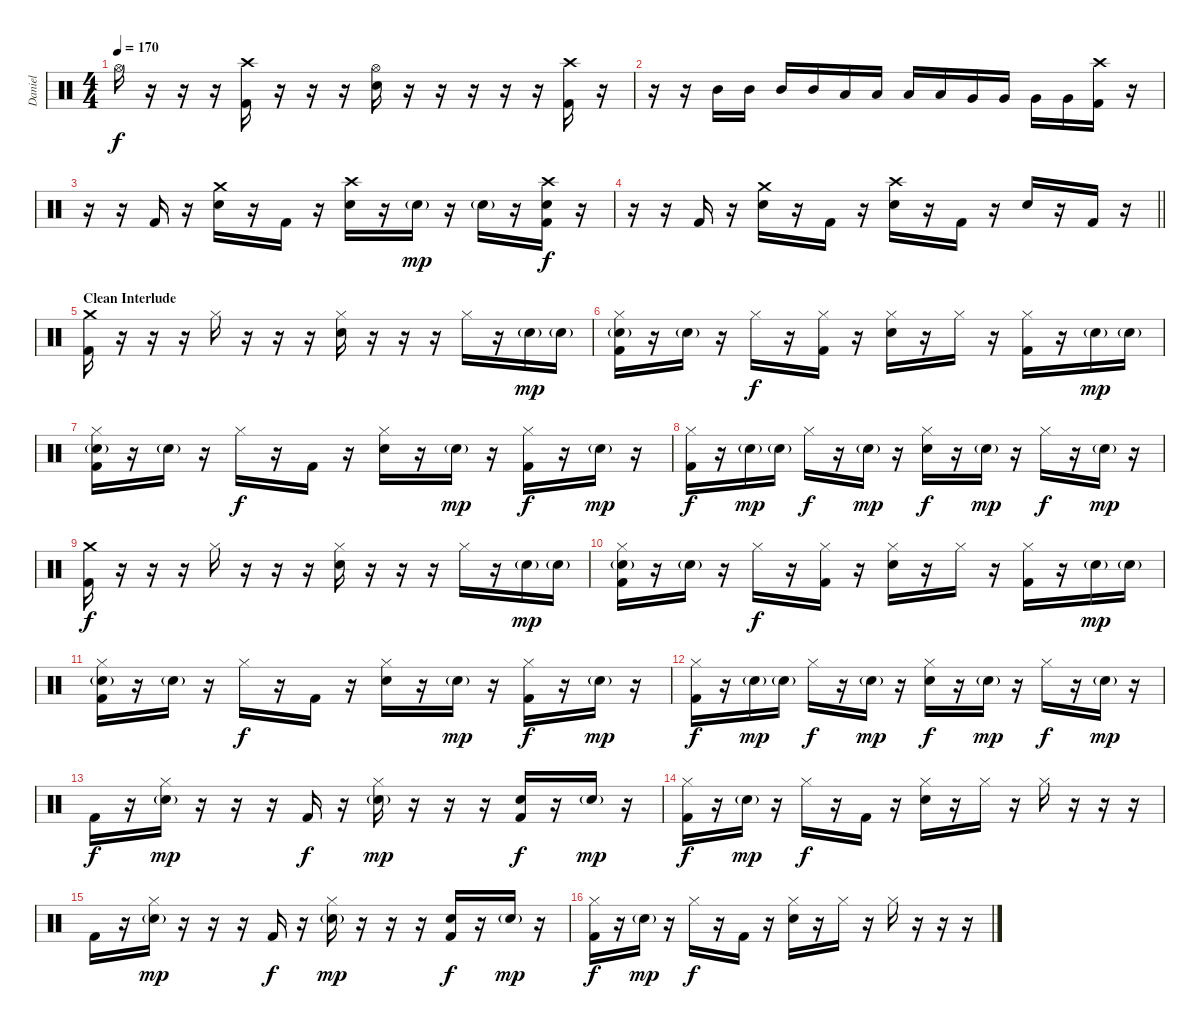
\track ("Daniel" "Daniel") {instrument percussion}
\staff {score}
\articulation defaults
\ts (4 4)
\tempo 170
\clef neutral
\ks c "Hi-Hat (open)".16{dy f}
r.16 r.16 r.16 ("Crash high (hit)" "Kick (hit) 2").16 r.16 r.16 r.16 ("Hi-Hat (open)" "Snare (hit) 2").16 r.16 r.16 r.16 r.16 r.16 ("Crash high (hit)" "Kick (hit) 2").16 r.16 |
r.16 r.16 "Mid Tom (hit)".16 "Mid Tom (hit)".16 "Mid Tom (hit)".16 "Mid Tom (hit)".16 "Low Tom (hit)".16 "Low Tom (hit)".16 "Low Tom (hit)".16 "Low Tom (hit)".16 "Very Low Tom (hit)".16 "Very Low Tom (hit)".16 "Very Low Tom (hit)".16 "Very Low Tom (hit)".16 ("Crash high (hit)" "Kick (hit) 2").16 r.16 |
r.16 r.16 "Kick (hit) 2".16 r.16 ("Crash medium (hit)" "Snare (hit) 2").16 r.16 "Kick (hit) 2".16 r.16 ("Crash high (hit)" "Snare (hit) 2").16 r.16 "Snare (hit) 2"{g}.16{dy mp} r.16 "Snare (hit) 2"{g}.16 r.16 ("Crash high (hit)" "Snare (hit) 2" "Kick (hit) 2").16{dy f} r.16 |
\barLineRight lightlight
r.16 r.16 "Kick (hit) 2".16 r.16 ("Crash medium (hit)" "Snare (hit) 2").16 r.16 "Kick (hit) 2".16 r.16 ("Crash high (hit)" "Snare (hit) 2").16 r.16 "Kick (hit) 2".16 r.16 "Snare (hit) 2".16 r.16 "Kick (hit) 2".16 r.16 |
\section ("" "Clean Interlude")
("Crash medium (hit)" "Kick (hit) 2").16 r.16 r.16 r.16 "Hi-Hat (closed)".16 r.16 r.16 r.16 ("Hi-Hat (closed)" "Snare (hit) 2").16 r.16 r.16 r.16 "Hi-Hat (closed)".16 r.16 "Snare (hit) 2"{g}.16{dy mp} "Snare (hit) 2"{g}.16 |
("Hi-Hat (closed)" "Snare (hit) 2"{g} "Kick (hit) 2").16 r.16 "Snare (hit) 2"{g}.16 r.16 "Hi-Hat (closed)".16{dy f} r.16 ("Hi-Hat (closed)" "Kick (hit) 2").16 r.16 ("Hi-Hat (closed)" "Snare (hit) 2").16 r.16 "Hi-Hat (closed)".16 r.16 ("Hi-Hat (closed)" "Kick (hit) 2").16 r.16 "Snare (hit) 2"{g}.16{dy mp} "Snare (hit) 2"{g}.16 |
("Hi-Hat (closed)" "Snare (hit) 2"{g} "Kick (hit) 2").16 r.16 "Snare (hit) 2"{g}.16 r.16 "Hi-Hat (closed)".16{dy f} r.16 "Kick (hit) 2".16 r.16 ("Hi-Hat (closed)" "Snare (hit) 2").16 r.16 "Snare (hit) 2"{g}.16{dy mp} r.16 ("Hi-Hat (closed)" "Kick (hit) 2").16{dy f} r.16 "Snare (hit) 2"{g}.16{dy mp} r.16 |
("Hi-Hat (closed)" "Kick (hit) 2").16{dy f} r.16 "Snare (hit) 2"{g}.16{dy mp} "Snare (hit) 2"{g}.16 "Hi-Hat (closed)".16{dy f} r.16 "Snare (hit) 2"{g}.16{dy mp} r.16 ("Hi-Hat (closed)" "Snare (hit) 2").16{dy f} r.16 "Snare (hit) 2"{g}.16{dy mp} r.16 "Hi-Hat (closed)".16{dy f} r.16 "Snare (hit) 2"{g}.16{dy mp} r.16 |
("Crash medium (hit)" "Kick (hit) 2").16{dy f} r.16 r.16 r.16 "Hi-Hat (closed)".16 r.16 r.16 r.16 ("Hi-Hat (closed)" "Snare (hit) 2").16 r.16 r.16 r.16 "Hi-Hat (closed)".16 r.16 "Snare (hit) 2"{g}.16{dy mp} "Snare (hit) 2"{g}.16 |
("Hi-Hat (closed)" "Snare (hit) 2"{g} "Kick (hit) 2").16 r.16 "Snare (hit) 2"{g}.16 r.16 "Hi-Hat (closed)".16{dy f} r.16 ("Hi-Hat (closed)" "Kick (hit) 2").16 r.16 ("Hi-Hat (closed)" "Snare (hit) 2").16 r.16 "Hi-Hat (closed)".16 r.16 ("Hi-Hat (closed)" "Kick (hit) 2").16 r.16 "Snare (hit) 2"{g}.16{dy mp} "Snare (hit) 2"{g}.16 |
("Hi-Hat (closed)" "Snare (hit) 2"{g} "Kick (hit) 2").16 r.16 "Snare (hit) 2"{g}.16 r.16 "Hi-Hat (closed)".16{dy f} r.16 "Kick (hit) 2".16 r.16 ("Hi-Hat (closed)" "Snare (hit) 2").16 r.16 "Snare (hit) 2"{g}.16{dy mp} r.16 ("Hi-Hat (closed)" "Kick (hit) 2").16{dy f} r.16 "Snare (hit) 2"{g}.16{dy mp} r.16 |
("Hi-Hat (closed)" "Kick (hit) 2").16{dy f} r.16 "Snare (hit) 2"{g}.16{dy mp} "Snare (hit) 2"{g}.16 "Hi-Hat (closed)".16{dy f} r.16 "Snare (hit) 2"{g}.16{dy mp} r.16 ("Hi-Hat (closed)" "Snare (hit) 2").16{dy f} r.16 "Snare (hit) 2"{g}.16{dy mp} r.16 "Hi-Hat (closed)".16{dy f} r.16 "Snare (hit) 2"{g}.16{dy mp} r.16 |
"Kick (hit) 2".16{dy f} r.16 ("Hi-Hat (closed)" "Snare (hit) 2"{g}).16{dy mp} r.16 r.16 r.16 "Kick (hit) 2".16{dy f} r.16 ("Hi-Hat (closed)" "Snare (hit) 2"{g}).16{dy mp} r.16 r.16 r.16 ("Snare (hit) 2" "Kick (hit) 2").16{dy f} r.16 "Snare (hit) 2"{g}.16{dy mp} r.16 |
("Hi-Hat (closed)" "Kick (hit) 2").16{dy f} r.16 "Snare (hit) 2"{g}.16{dy mp} r.16 "Hi-Hat (closed)".16{dy f} r.16 "Kick (hit) 2".16 r.16 ("Hi-Hat (closed)" "Snare (hit) 2").16 r.16 "Hi-Hat (closed)".16 r.16 "Hi-Hat (closed)".16 r.16 r.16 r.16 |
"Kick (hit) 2".16 r.16 ("Hi-Hat (closed)" "Snare (hit) 2"{g}).16{dy mp} r.16 r.16 r.16 "Kick (hit) 2".16{dy f} r.16 ("Hi-Hat (closed)" "Snare (hit) 2"{g}).16{dy mp} r.16 r.16 r.16 ("Snare (hit) 2" "Kick (hit) 2").16{dy f} r.16 "Snare (hit) 2"{g}.16{dy mp} r.16 |
("Hi-Hat (closed)" "Kick (hit) 2").16{dy f} r.16 "Snare (hit) 2"{g}.16{dy mp} r.16 "Hi-Hat (closed)".16{dy f} r.16 "Kick (hit) 2".16 r.16 ("Hi-Hat (closed)" "Snare (hit) 2").16 r.16 "Hi-Hat (closed)".16 r.16 "Hi-Hat (closed)".16 r.16 r.16 r.16
